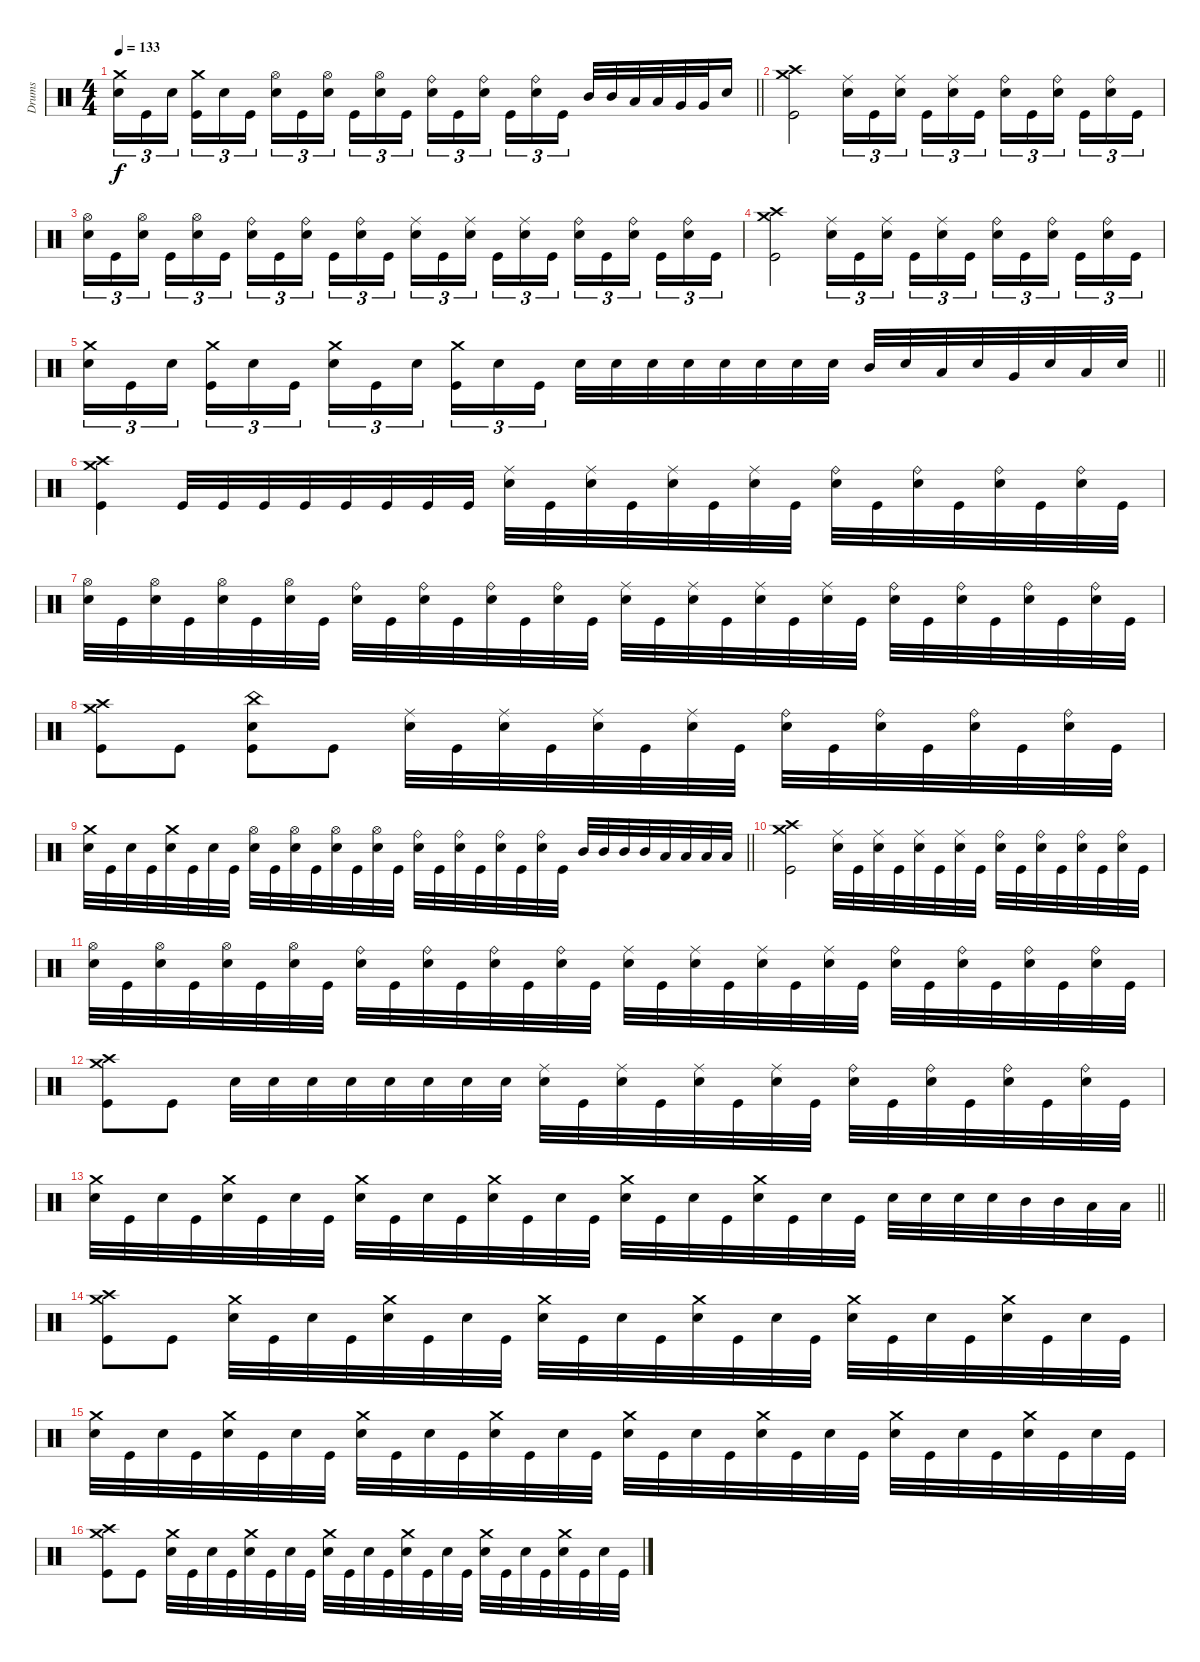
\track ("Drums" "Drums") {instrument percussion}
\staff
\articulation defaults
\ts (4 4)
\tempo 133
\clef neutral
\barLineRight lightlight
\ks c
("Crash medium (hit)" "Electric Snare (hit)").16{tu (3 2) dy f} "Kick (hit)".16{tu (3 2)} "Electric Snare (hit)".16{tu (3 2) beam splitsecondary} ("Crash medium (hit)" "Kick (hit)").16{tu (3 2)} "Electric Snare (hit)".16{tu (3 2)} "Kick (hit)".16{tu (3 2)} ("Hi-Hat (open)" "Electric Snare (hit)").16{tu (3 2)} "Kick (hit)".16{tu (3 2)} ("Hi-Hat (open)" "Electric Snare (hit)").16{tu (3 2) beam splitsecondary} "Kick (hit)".16{tu (3 2)} ("Hi-Hat (open)" "Electric Snare (hit)").16{tu (3 2)} "Kick (hit)".16{tu (3 2)} ("Ride (bell)" "Electric Snare (hit)").16{tu (3 2)} "Kick (hit)".16{tu (3 2)} ("Ride (bell)" "Electric Snare (hit)").16{tu (3 2) beam splitsecondary} "Kick (hit)".16{tu (3 2)} ("Ride (bell)" "Electric Snare (hit)").16{tu (3 2)} "Kick (hit)".16{tu (3 2)} "Mid Tom (hit)".32 "Mid Tom (hit)".32 "Low Tom (hit)".32 "Low Tom (hit)".32 "Very Low Tom (hit)".32 "Very Low Tom (hit)".32 "Electric Snare (hit)".16 |
("Crash high (hit)" "Crash medium (hit)" "Kick (hit)").2 ("Ride (middle)" "Electric Snare (hit)").16{tu (3 2)} "Kick (hit)".16{tu (3 2)} ("Ride (middle)" "Electric Snare (hit)").16{tu (3 2) beam splitsecondary} "Kick (hit)".16{tu (3 2)} ("Ride (middle)" "Electric Snare (hit)").16{tu (3 2)} "Kick (hit)".16{tu (3 2)} ("Ride (bell)" "Electric Snare (hit)").16{tu (3 2)} "Kick (hit)".16{tu (3 2)} ("Ride (bell)" "Electric Snare (hit)").16{tu (3 2) beam splitsecondary} "Kick (hit)".16{tu (3 2)} ("Ride (bell)" "Electric Snare (hit)").16{tu (3 2)} "Kick (hit)".16{tu (3 2)} |
("Hi-Hat (open)" "Electric Snare (hit)").16{tu (3 2)} "Kick (hit)".16{tu (3 2)} ("Hi-Hat (open)" "Electric Snare (hit)").16{tu (3 2) beam splitsecondary} "Kick (hit)".16{tu (3 2)} ("Hi-Hat (open)" "Electric Snare (hit)").16{tu (3 2)} "Kick (hit)".16{tu (3 2)} ("Ride (bell)" "Electric Snare (hit)").16{tu (3 2)} "Kick (hit)".16{tu (3 2)} ("Ride (bell)" "Electric Snare (hit)").16{tu (3 2) beam splitsecondary} "Kick (hit)".16{tu (3 2)} ("Ride (bell)" "Electric Snare (hit)").16{tu (3 2)} "Kick (hit)".16{tu (3 2)} ("Ride (middle)" "Electric Snare (hit)").16{tu (3 2)} "Kick (hit)".16{tu (3 2)} ("Ride (middle)" "Electric Snare (hit)").16{tu (3 2) beam splitsecondary} "Kick (hit)".16{tu (3 2)} ("Ride (middle)" "Electric Snare (hit)").16{tu (3 2)} "Kick (hit)".16{tu (3 2)} ("Ride (bell)" "Electric Snare (hit)").16{tu (3 2)} "Kick (hit)".16{tu (3 2)} ("Ride (bell)" "Electric Snare (hit)").16{tu (3 2) beam splitsecondary} "Kick (hit)".16{tu (3 2)} ("Ride (bell)" "Electric Snare (hit)").16{tu (3 2)} "Kick (hit)".16{tu (3 2)} |
("Crash high (hit)" "Crash medium (hit)" "Kick (hit)").2 ("Ride (middle)" "Electric Snare (hit)").16{tu (3 2)} "Kick (hit)".16{tu (3 2)} ("Ride (middle)" "Electric Snare (hit)").16{tu (3 2) beam splitsecondary} "Kick (hit)".16{tu (3 2)} ("Ride (middle)" "Electric Snare (hit)").16{tu (3 2)} "Kick (hit)".16{tu (3 2)} ("Ride (bell)" "Electric Snare (hit)").16{tu (3 2)} "Kick (hit)".16{tu (3 2)} ("Ride (bell)" "Electric Snare (hit)").16{tu (3 2) beam splitsecondary} "Kick (hit)".16{tu (3 2)} ("Ride (bell)" "Electric Snare (hit)").16{tu (3 2)} "Kick (hit)".16{tu (3 2)} |
\barLineRight lightlight
("Crash medium (hit)" "Electric Snare (hit)").16{tu (3 2)} "Kick (hit)".16{tu (3 2)} "Electric Snare (hit)".16{tu (3 2) beam splitsecondary} ("Crash medium (hit)" "Kick (hit)").16{tu (3 2)} "Electric Snare (hit)".16{tu (3 2)} "Kick (hit)".16{tu (3 2)} ("Crash medium (hit)" "Electric Snare (hit)").16{tu (3 2)} "Kick (hit)".16{tu (3 2)} "Electric Snare (hit)".16{tu (3 2) beam splitsecondary} ("Crash medium (hit)" "Kick (hit)").16{tu (3 2)} "Electric Snare (hit)".16{tu (3 2)} "Kick (hit)".16{tu (3 2)} "Electric Snare (hit)".32 "Electric Snare (hit)".32 "Electric Snare (hit)".32 "Electric Snare (hit)".32 "Electric Snare (hit)".32 "Electric Snare (hit)".32 "Electric Snare (hit)".32 "Electric Snare (hit)".32 "Mid Tom (hit)".32 "Electric Snare (hit)".32 "Low Tom (hit)".32 "Electric Snare (hit)".32 "Very Low Tom (hit)".32 "Electric Snare (hit)".32 "Low Floor Tom (hit)".32 "Electric Snare (hit)".32 |
\section ("" "")
("Crash high (hit)" "Crash medium (hit)" "Kick (hit)").4 "Kick (hit)".32 "Kick (hit)".32 "Kick (hit)".32 "Kick (hit)".32 "Kick (hit)".32 "Kick (hit)".32 "Kick (hit)".32 "Kick (hit)".32 ("Ride (middle)" "Electric Snare (hit)").32 "Kick (hit)".32 ("Ride (middle)" "Electric Snare (hit)").32 "Kick (hit)".32 ("Ride (middle)" "Electric Snare (hit)").32 "Kick (hit)".32 ("Ride (middle)" "Electric Snare (hit)").32 "Kick (hit)".32 ("Ride (bell)" "Electric Snare (hit)").32 "Kick (hit)".32 ("Ride (bell)" "Electric Snare (hit)").32 "Kick (hit)".32 ("Ride (bell)" "Electric Snare (hit)").32 "Kick (hit)".32 ("Ride (bell)" "Electric Snare (hit)").32 "Kick (hit)".32 |
("Hi-Hat (open)" "Electric Snare (hit)").32 "Kick (hit)".32 ("Hi-Hat (open)" "Electric Snare (hit)").32 "Kick (hit)".32 ("Hi-Hat (open)" "Electric Snare (hit)").32 "Kick (hit)".32 ("Hi-Hat (open)" "Electric Snare (hit)").32 "Kick (hit)".32 ("Ride (bell)" "Electric Snare (hit)").32 "Kick (hit)".32 ("Ride (bell)" "Electric Snare (hit)").32 "Kick (hit)".32 ("Ride (bell)" "Electric Snare (hit)").32 "Kick (hit)".32 ("Ride (bell)" "Electric Snare (hit)").32 "Kick (hit)".32 ("Ride (middle)" "Electric Snare (hit)").32 "Kick (hit)".32 ("Ride (middle)" "Electric Snare (hit)").32 "Kick (hit)".32 ("Ride (middle)" "Electric Snare (hit)").32 "Kick (hit)".32 ("Ride (middle)" "Electric Snare (hit)").32 "Kick (hit)".32 ("Ride (bell)" "Electric Snare (hit)").32 "Kick (hit)".32 ("Ride (bell)" "Electric Snare (hit)").32 "Kick (hit)".32 ("Ride (bell)" "Electric Snare (hit)").32 "Kick (hit)".32 ("Ride (bell)" "Electric Snare (hit)").32 "Kick (hit)".32 |
("Crash high (hit)" "Crash medium (hit)" "Kick (hit)").8 "Kick (hit)".8 ("China (hit)" "Electric Snare (hit)" "Kick (hit)").8 "Kick (hit)".8 ("Ride (middle)" "Electric Snare (hit)").32 "Kick (hit)".32 ("Ride (middle)" "Electric Snare (hit)").32 "Kick (hit)".32 ("Ride (middle)" "Electric Snare (hit)").32 "Kick (hit)".32 ("Ride (middle)" "Electric Snare (hit)").32 "Kick (hit)".32 ("Ride (bell)" "Electric Snare (hit)").32 "Kick (hit)".32 ("Ride (bell)" "Electric Snare (hit)").32 "Kick (hit)".32 ("Ride (bell)" "Electric Snare (hit)").32 "Kick (hit)".32 ("Ride (bell)" "Electric Snare (hit)").32 "Kick (hit)".32 |
\barLineRight lightlight
("Crash medium (hit)" "Electric Snare (hit)").32 "Kick (hit)".32 "Electric Snare (hit)".32 "Kick (hit)".32 ("Crash medium (hit)" "Electric Snare (hit)").32 "Kick (hit)".32 "Electric Snare (hit)".32 "Kick (hit)".32 ("Hi-Hat (open)" "Electric Snare (hit)").32 "Kick (hit)".32 ("Hi-Hat (open)" "Electric Snare (hit)").32 "Kick (hit)".32 ("Hi-Hat (open)" "Electric Snare (hit)").32 "Kick (hit)".32 ("Hi-Hat (open)" "Electric Snare (hit)").32 "Kick (hit)".32 ("Ride (bell)" "Electric Snare (hit)").32 "Kick (hit)".32 ("Ride (bell)" "Electric Snare (hit)").32 "Kick (hit)".32 ("Ride (bell)" "Electric Snare (hit)").32 "Kick (hit)".32 ("Ride (bell)" "Electric Snare (hit)").32 "Kick (hit)".32 "Mid Tom (hit)".32 "Mid Tom (hit)".32 "Mid Tom (hit)".32 "Mid Tom (hit)".32 "Low Tom (hit)".32 "Low Tom (hit)".32 "Low Tom (hit)".32 "Low Tom (hit)".32 |
("Crash high (hit)" "Crash medium (hit)" "Kick (hit)").2 ("Ride (middle)" "Electric Snare (hit)").32 "Kick (hit)".32 ("Ride (middle)" "Electric Snare (hit)").32 "Kick (hit)".32 ("Ride (middle)" "Electric Snare (hit)").32 "Kick (hit)".32 ("Ride (middle)" "Electric Snare (hit)").32 "Kick (hit)".32 ("Ride (bell)" "Electric Snare (hit)").32 "Kick (hit)".32 ("Ride (bell)" "Electric Snare (hit)").32 "Kick (hit)".32 ("Ride (bell)" "Electric Snare (hit)").32 "Kick (hit)".32 ("Ride (bell)" "Electric Snare (hit)").32 "Kick (hit)".32 |
("Hi-Hat (open)" "Electric Snare (hit)").32 "Kick (hit)".32 ("Hi-Hat (open)" "Electric Snare (hit)").32 "Kick (hit)".32 ("Hi-Hat (open)" "Electric Snare (hit)").32 "Kick (hit)".32 ("Hi-Hat (open)" "Electric Snare (hit)").32 "Kick (hit)".32 ("Ride (bell)" "Electric Snare (hit)").32 "Kick (hit)".32 ("Ride (bell)" "Electric Snare (hit)").32 "Kick (hit)".32 ("Ride (bell)" "Electric Snare (hit)").32 "Kick (hit)".32 ("Ride (bell)" "Electric Snare (hit)").32 "Kick (hit)".32 ("Ride (middle)" "Electric Snare (hit)").32 "Kick (hit)".32 ("Ride (middle)" "Electric Snare (hit)").32 "Kick (hit)".32 ("Ride (middle)" "Electric Snare (hit)").32 "Kick (hit)".32 ("Ride (middle)" "Electric Snare (hit)").32 "Kick (hit)".32 ("Ride (bell)" "Electric Snare (hit)").32 "Kick (hit)".32 ("Ride (bell)" "Electric Snare (hit)").32 "Kick (hit)".32 ("Ride (bell)" "Electric Snare (hit)").32 "Kick (hit)".32 ("Ride (bell)" "Electric Snare (hit)").32 "Kick (hit)".32 |
("Crash high (hit)" "Crash medium (hit)" "Kick (hit)").8 "Kick (hit)".8 "Electric Snare (hit)".32 "Electric Snare (hit)".32 "Electric Snare (hit)".32 "Electric Snare (hit)".32 "Electric Snare (hit)".32 "Electric Snare (hit)".32 "Electric Snare (hit)".32 "Electric Snare (hit)".32 ("Ride (middle)" "Electric Snare (hit)").32 "Kick (hit)".32 ("Ride (middle)" "Electric Snare (hit)").32 "Kick (hit)".32 ("Ride (middle)" "Electric Snare (hit)").32 "Kick (hit)".32 ("Ride (middle)" "Electric Snare (hit)").32 "Kick (hit)".32 ("Ride (bell)" "Electric Snare (hit)").32 "Kick (hit)".32 ("Ride (bell)" "Electric Snare (hit)").32 "Kick (hit)".32 ("Ride (bell)" "Electric Snare (hit)").32 "Kick (hit)".32 ("Ride (bell)" "Electric Snare (hit)").32 "Kick (hit)".32 |
\barLineRight lightlight
("Crash medium (hit)" "Electric Snare (hit)").32 "Kick (hit)".32 "Electric Snare (hit)".32 "Kick (hit)".32 ("Crash medium (hit)" "Electric Snare (hit)").32 "Kick (hit)".32 "Electric Snare (hit)".32 "Kick (hit)".32 ("Crash medium (hit)" "Electric Snare (hit)").32 "Kick (hit)".32 "Electric Snare (hit)".32 "Kick (hit)".32 ("Crash medium (hit)" "Electric Snare (hit)").32 "Kick (hit)".32 "Electric Snare (hit)".32 "Kick (hit)".32 ("Crash medium (hit)" "Electric Snare (hit)").32 "Kick (hit)".32 "Electric Snare (hit)".32 "Kick (hit)".32 ("Crash medium (hit)" "Electric Snare (hit)").32 "Kick (hit)".32 "Electric Snare (hit)".32 "Kick (hit)".32 "Electric Snare (hit)".32 "Electric Snare (hit)".32 "Electric Snare (hit)".32 "Electric Snare (hit)".32 "Mid Tom (hit)".32 "Mid Tom (hit)".32 "Low Tom (hit)".32 "Low Tom (hit)".32 |
\section ("" "")
("Crash high (hit)" "Crash medium (hit)" "Kick (hit)").8 "Kick (hit)".8 ("Crash medium (hit)" "Electric Snare (hit)").32 "Kick (hit)".32 "Electric Snare (hit)".32 "Kick (hit)".32 ("Crash medium (hit)" "Electric Snare (hit)").32 "Kick (hit)".32 "Electric Snare (hit)".32 "Kick (hit)".32 ("Crash medium (hit)" "Electric Snare (hit)").32 "Kick (hit)".32 "Electric Snare (hit)".32 "Kick (hit)".32 ("Crash medium (hit)" "Electric Snare (hit)").32 "Kick (hit)".32 "Electric Snare (hit)".32 "Kick (hit)".32 ("Crash medium (hit)" "Electric Snare (hit)").32 "Kick (hit)".32 "Electric Snare (hit)".32 "Kick (hit)".32 ("Crash medium (hit)" "Electric Snare (hit)").32 "Kick (hit)".32 "Electric Snare (hit)".32 "Kick (hit)".32 |
("Crash medium (hit)" "Electric Snare (hit)").32 "Kick (hit)".32 "Electric Snare (hit)".32 "Kick (hit)".32 ("Crash medium (hit)" "Electric Snare (hit)").32 "Kick (hit)".32 "Electric Snare (hit)".32 "Kick (hit)".32 ("Crash medium (hit)" "Electric Snare (hit)").32 "Kick (hit)".32 "Electric Snare (hit)".32 "Kick (hit)".32 ("Crash medium (hit)" "Electric Snare (hit)").32 "Kick (hit)".32 "Electric Snare (hit)".32 "Kick (hit)".32 ("Crash medium (hit)" "Electric Snare (hit)").32 "Kick (hit)".32 "Electric Snare (hit)".32 "Kick (hit)".32 ("Crash medium (hit)" "Electric Snare (hit)").32 "Kick (hit)".32 "Electric Snare (hit)".32 "Kick (hit)".32 ("Crash medium (hit)" "Electric Snare (hit)").32 "Kick (hit)".32 "Electric Snare (hit)".32 "Kick (hit)".32 ("Crash medium (hit)" "Electric Snare (hit)").32 "Kick (hit)".32 "Electric Snare (hit)".32 "Kick (hit)".32 |
("Crash high (hit)" "Crash medium (hit)" "Kick (hit)").8 "Kick (hit)".8 ("Crash medium (hit)" "Electric Snare (hit)").32 "Kick (hit)".32 "Electric Snare (hit)".32 "Kick (hit)".32 ("Crash medium (hit)" "Electric Snare (hit)").32 "Kick (hit)".32 "Electric Snare (hit)".32 "Kick (hit)".32 ("Crash medium (hit)" "Electric Snare (hit)").32 "Kick (hit)".32 "Electric Snare (hit)".32 "Kick (hit)".32 ("Crash medium (hit)" "Electric Snare (hit)").32 "Kick (hit)".32 "Electric Snare (hit)".32 "Kick (hit)".32 ("Crash medium (hit)" "Electric Snare (hit)").32 "Kick (hit)".32 "Electric Snare (hit)".32 "Kick (hit)".32 ("Crash medium (hit)" "Electric Snare (hit)").32 "Kick (hit)".32 "Electric Snare (hit)".32 "Kick (hit)".32
